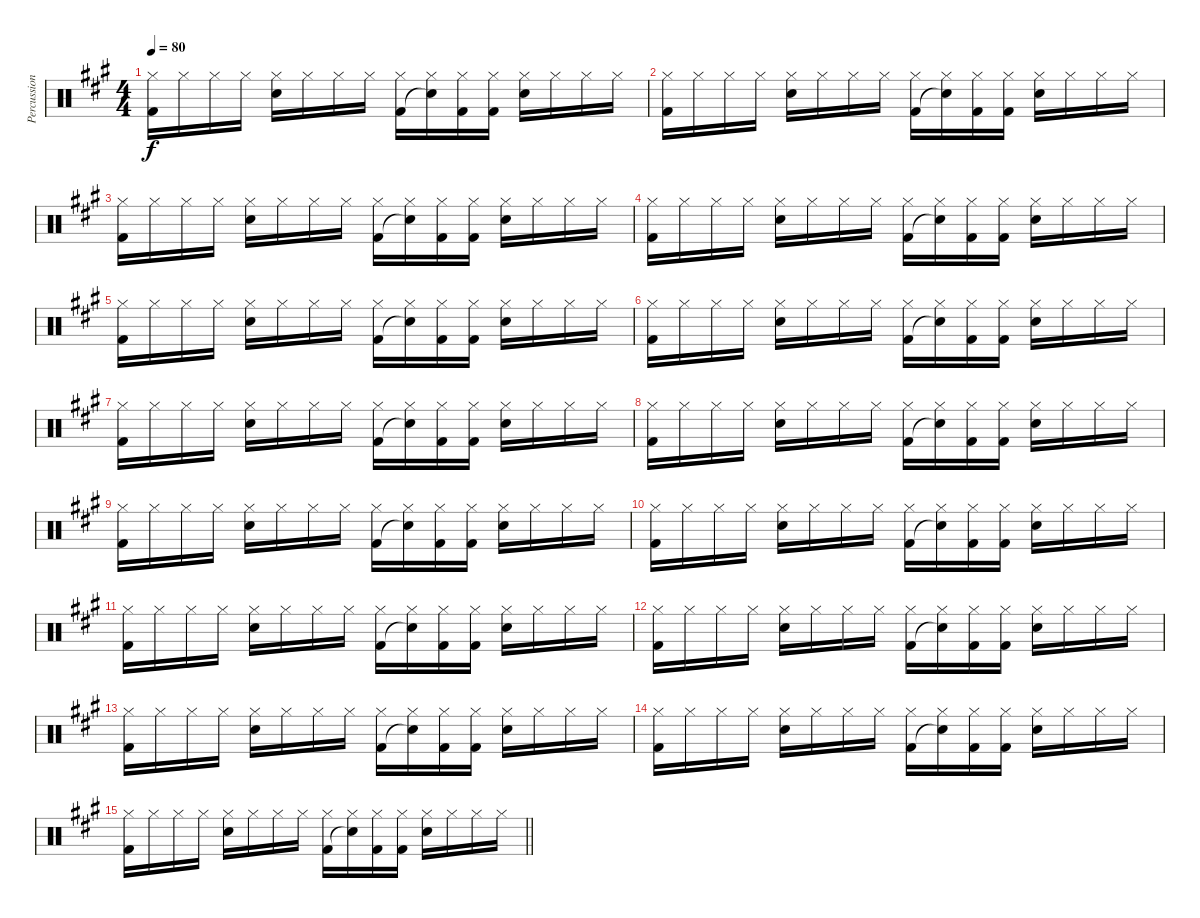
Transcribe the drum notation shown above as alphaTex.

\track ("Percussion" "Percussion") {instrument percussion}
\staff {score}
\articulation defaults
\ts (4 4)
\tempo 80
\clef neutral
\ks a
("Hi-Hat (closed)" "Kick (hit) 2").16{dy f} "Hi-Hat (closed)".16 "Hi-Hat (closed)".16 "Hi-Hat (closed)".16 ("Hi-Hat (closed)" "Snare (hit) 2").16 "Hi-Hat (closed)".16 "Hi-Hat (closed)".16 "Hi-Hat (closed)".16 ("Hi-Hat (closed)" "Kick (hit) 2").16 ("Hi-Hat (closed)" "Snare (hit)"{t}).16 ("Hi-Hat (closed)" "Kick (hit) 2").16 ("Hi-Hat (closed)" "Kick (hit) 2").16 ("Hi-Hat (closed)" "Snare (hit) 2").16 "Hi-Hat (closed)".16 "Hi-Hat (closed)".16 "Hi-Hat (closed)".16 |
("Hi-Hat (closed)" "Kick (hit) 2").16 "Hi-Hat (closed)".16 "Hi-Hat (closed)".16 "Hi-Hat (closed)".16 ("Hi-Hat (closed)" "Snare (hit) 2").16 "Hi-Hat (closed)".16 "Hi-Hat (closed)".16 "Hi-Hat (closed)".16 ("Hi-Hat (closed)" "Kick (hit) 2").16 ("Hi-Hat (closed)" "Snare (hit)"{t}).16 ("Hi-Hat (closed)" "Kick (hit) 2").16 ("Hi-Hat (closed)" "Kick (hit) 2").16 ("Hi-Hat (closed)" "Snare (hit) 2").16 "Hi-Hat (closed)".16 "Hi-Hat (closed)".16 "Hi-Hat (closed)".16 |
("Hi-Hat (closed)" "Kick (hit) 2").16 "Hi-Hat (closed)".16 "Hi-Hat (closed)".16 "Hi-Hat (closed)".16 ("Hi-Hat (closed)" "Snare (hit) 2").16 "Hi-Hat (closed)".16 "Hi-Hat (closed)".16 "Hi-Hat (closed)".16 ("Hi-Hat (closed)" "Kick (hit) 2").16 ("Hi-Hat (closed)" "Snare (hit)"{t}).16 ("Hi-Hat (closed)" "Kick (hit) 2").16 ("Hi-Hat (closed)" "Kick (hit) 2").16 ("Hi-Hat (closed)" "Snare (hit) 2").16 "Hi-Hat (closed)".16 "Hi-Hat (closed)".16 "Hi-Hat (closed)".16 |
("Hi-Hat (closed)" "Kick (hit) 2").16 "Hi-Hat (closed)".16 "Hi-Hat (closed)".16 "Hi-Hat (closed)".16 ("Hi-Hat (closed)" "Snare (hit) 2").16 "Hi-Hat (closed)".16 "Hi-Hat (closed)".16 "Hi-Hat (closed)".16 ("Hi-Hat (closed)" "Kick (hit) 2").16 ("Hi-Hat (closed)" "Snare (hit)"{t}).16 ("Hi-Hat (closed)" "Kick (hit) 2").16 ("Hi-Hat (closed)" "Kick (hit) 2").16 ("Hi-Hat (closed)" "Snare (hit) 2").16 "Hi-Hat (closed)".16 "Hi-Hat (closed)".16 "Hi-Hat (closed)".16 |
("Hi-Hat (closed)" "Kick (hit) 2").16 "Hi-Hat (closed)".16 "Hi-Hat (closed)".16 "Hi-Hat (closed)".16 ("Hi-Hat (closed)" "Snare (hit) 2").16 "Hi-Hat (closed)".16 "Hi-Hat (closed)".16 "Hi-Hat (closed)".16 ("Hi-Hat (closed)" "Kick (hit) 2").16 ("Hi-Hat (closed)" "Snare (hit)"{t}).16 ("Hi-Hat (closed)" "Kick (hit) 2").16 ("Hi-Hat (closed)" "Kick (hit) 2").16 ("Hi-Hat (closed)" "Snare (hit) 2").16 "Hi-Hat (closed)".16 "Hi-Hat (closed)".16 "Hi-Hat (closed)".16 |
("Hi-Hat (closed)" "Kick (hit) 2").16 "Hi-Hat (closed)".16 "Hi-Hat (closed)".16 "Hi-Hat (closed)".16 ("Hi-Hat (closed)" "Snare (hit) 2").16 "Hi-Hat (closed)".16 "Hi-Hat (closed)".16 "Hi-Hat (closed)".16 ("Hi-Hat (closed)" "Kick (hit) 2").16 ("Hi-Hat (closed)" "Snare (hit)"{t}).16 ("Hi-Hat (closed)" "Kick (hit) 2").16 ("Hi-Hat (closed)" "Kick (hit) 2").16 ("Hi-Hat (closed)" "Snare (hit) 2").16 "Hi-Hat (closed)".16 "Hi-Hat (closed)".16 "Hi-Hat (closed)".16 |
("Hi-Hat (closed)" "Kick (hit) 2").16 "Hi-Hat (closed)".16 "Hi-Hat (closed)".16 "Hi-Hat (closed)".16 ("Hi-Hat (closed)" "Snare (hit) 2").16 "Hi-Hat (closed)".16 "Hi-Hat (closed)".16 "Hi-Hat (closed)".16 ("Hi-Hat (closed)" "Kick (hit) 2").16 ("Hi-Hat (closed)" "Snare (hit)"{t}).16 ("Hi-Hat (closed)" "Kick (hit) 2").16 ("Hi-Hat (closed)" "Kick (hit) 2").16 ("Hi-Hat (closed)" "Snare (hit) 2").16 "Hi-Hat (closed)".16 "Hi-Hat (closed)".16 "Hi-Hat (closed)".16 |
("Hi-Hat (closed)" "Kick (hit) 2").16 "Hi-Hat (closed)".16 "Hi-Hat (closed)".16 "Hi-Hat (closed)".16 ("Hi-Hat (closed)" "Snare (hit) 2").16 "Hi-Hat (closed)".16 "Hi-Hat (closed)".16 "Hi-Hat (closed)".16 ("Hi-Hat (closed)" "Kick (hit) 2").16 ("Hi-Hat (closed)" "Snare (hit)"{t}).16 ("Hi-Hat (closed)" "Kick (hit) 2").16 ("Hi-Hat (closed)" "Kick (hit) 2").16 ("Hi-Hat (closed)" "Snare (hit) 2").16 "Hi-Hat (closed)".16 "Hi-Hat (closed)".16 "Hi-Hat (closed)".16 |
("Hi-Hat (closed)" "Kick (hit) 2").16 "Hi-Hat (closed)".16 "Hi-Hat (closed)".16 "Hi-Hat (closed)".16 ("Hi-Hat (closed)" "Snare (hit) 2").16 "Hi-Hat (closed)".16 "Hi-Hat (closed)".16 "Hi-Hat (closed)".16 ("Hi-Hat (closed)" "Kick (hit) 2").16 ("Hi-Hat (closed)" "Snare (hit)"{t}).16 ("Hi-Hat (closed)" "Kick (hit) 2").16 ("Hi-Hat (closed)" "Kick (hit) 2").16 ("Hi-Hat (closed)" "Snare (hit) 2").16 "Hi-Hat (closed)".16 "Hi-Hat (closed)".16 "Hi-Hat (closed)".16 |
("Hi-Hat (closed)" "Kick (hit) 2").16 "Hi-Hat (closed)".16 "Hi-Hat (closed)".16 "Hi-Hat (closed)".16 ("Hi-Hat (closed)" "Snare (hit) 2").16 "Hi-Hat (closed)".16 "Hi-Hat (closed)".16 "Hi-Hat (closed)".16 ("Hi-Hat (closed)" "Kick (hit) 2").16 ("Hi-Hat (closed)" "Snare (hit)"{t}).16 ("Hi-Hat (closed)" "Kick (hit) 2").16 ("Hi-Hat (closed)" "Kick (hit) 2").16 ("Hi-Hat (closed)" "Snare (hit) 2").16 "Hi-Hat (closed)".16 "Hi-Hat (closed)".16 "Hi-Hat (closed)".16 |
("Hi-Hat (closed)" "Kick (hit) 2").16 "Hi-Hat (closed)".16 "Hi-Hat (closed)".16 "Hi-Hat (closed)".16 ("Hi-Hat (closed)" "Snare (hit) 2").16 "Hi-Hat (closed)".16 "Hi-Hat (closed)".16 "Hi-Hat (closed)".16 ("Hi-Hat (closed)" "Kick (hit) 2").16 ("Hi-Hat (closed)" "Snare (hit)"{t}).16 ("Hi-Hat (closed)" "Kick (hit) 2").16 ("Hi-Hat (closed)" "Kick (hit) 2").16 ("Hi-Hat (closed)" "Snare (hit) 2").16 "Hi-Hat (closed)".16 "Hi-Hat (closed)".16 "Hi-Hat (closed)".16 |
("Hi-Hat (closed)" "Kick (hit) 2").16 "Hi-Hat (closed)".16 "Hi-Hat (closed)".16 "Hi-Hat (closed)".16 ("Hi-Hat (closed)" "Snare (hit) 2").16 "Hi-Hat (closed)".16 "Hi-Hat (closed)".16 "Hi-Hat (closed)".16 ("Hi-Hat (closed)" "Kick (hit) 2").16 ("Hi-Hat (closed)" "Snare (hit)"{t}).16 ("Hi-Hat (closed)" "Kick (hit) 2").16 ("Hi-Hat (closed)" "Kick (hit) 2").16 ("Hi-Hat (closed)" "Snare (hit) 2").16 "Hi-Hat (closed)".16 "Hi-Hat (closed)".16 "Hi-Hat (closed)".16 |
("Hi-Hat (closed)" "Kick (hit) 2").16 "Hi-Hat (closed)".16 "Hi-Hat (closed)".16 "Hi-Hat (closed)".16 ("Hi-Hat (closed)" "Snare (hit) 2").16 "Hi-Hat (closed)".16 "Hi-Hat (closed)".16 "Hi-Hat (closed)".16 ("Hi-Hat (closed)" "Kick (hit) 2").16 ("Hi-Hat (closed)" "Snare (hit)"{t}).16 ("Hi-Hat (closed)" "Kick (hit) 2").16 ("Hi-Hat (closed)" "Kick (hit) 2").16 ("Hi-Hat (closed)" "Snare (hit) 2").16 "Hi-Hat (closed)".16 "Hi-Hat (closed)".16 "Hi-Hat (closed)".16 |
("Hi-Hat (closed)" "Kick (hit) 2").16 "Hi-Hat (closed)".16 "Hi-Hat (closed)".16 "Hi-Hat (closed)".16 ("Hi-Hat (closed)" "Snare (hit) 2").16 "Hi-Hat (closed)".16 "Hi-Hat (closed)".16 "Hi-Hat (closed)".16 ("Hi-Hat (closed)" "Kick (hit) 2").16 ("Hi-Hat (closed)" "Snare (hit)"{t}).16 ("Hi-Hat (closed)" "Kick (hit) 2").16 ("Hi-Hat (closed)" "Kick (hit) 2").16 ("Hi-Hat (closed)" "Snare (hit) 2").16 "Hi-Hat (closed)".16 "Hi-Hat (closed)".16 "Hi-Hat (closed)".16 |
\barLineRight lightlight
("Hi-Hat (closed)" "Kick (hit) 2").16 "Hi-Hat (closed)".16 "Hi-Hat (closed)".16 "Hi-Hat (closed)".16 ("Hi-Hat (closed)" "Snare (hit) 2").16 "Hi-Hat (closed)".16 "Hi-Hat (closed)".16 "Hi-Hat (closed)".16 ("Hi-Hat (closed)" "Kick (hit) 2").16 ("Hi-Hat (closed)" "Snare (hit)"{t}).16 ("Hi-Hat (closed)" "Kick (hit) 2").16 ("Hi-Hat (closed)" "Kick (hit) 2").16 ("Hi-Hat (closed)" "Snare (hit) 2").16 "Hi-Hat (closed)".16 "Hi-Hat (closed)".16 "Hi-Hat (closed)".16
